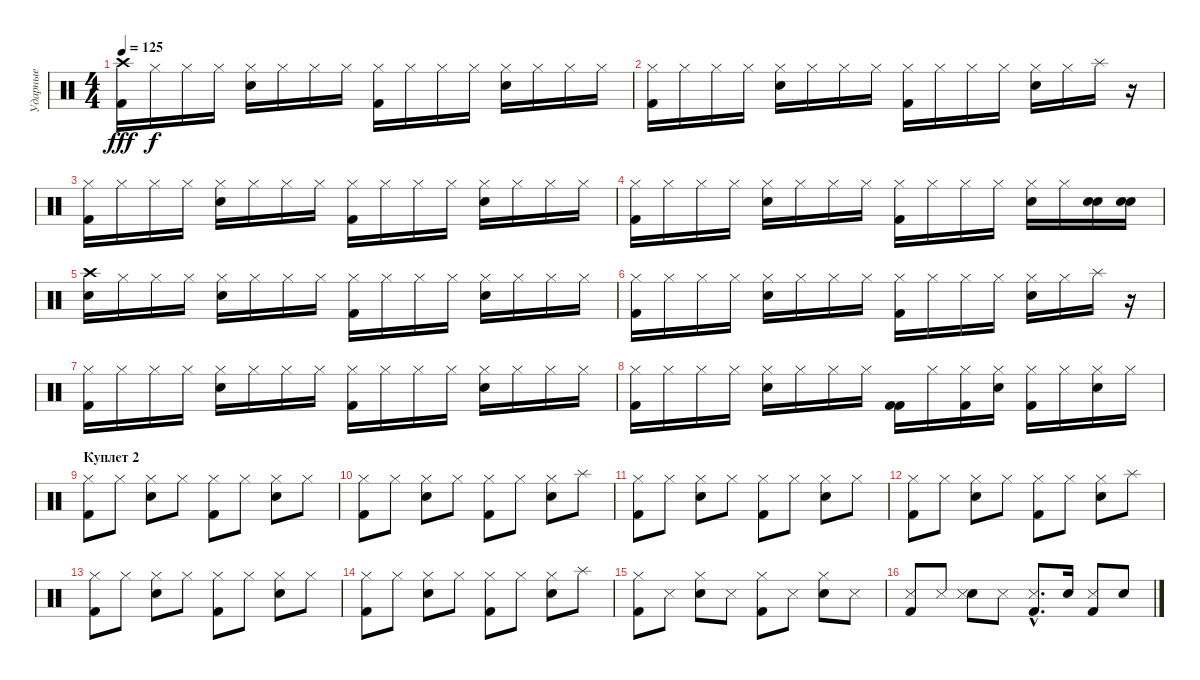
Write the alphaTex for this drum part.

\track ("Ударные" "Ударные") {instrument percussion}
\staff {score}
\articulation defaults
\ts (4 4)
\tempo 125
\clef neutral
\ks c
("Crash high (hit)" "Kick (hit) 2").16{dy fff balance 8} "Hi-Hat (closed)".16{dy f} "Hi-Hat (closed)".16 "Hi-Hat (closed)".16 ("Hi-Hat (closed)" "Snare (hit) 2").16 "Hi-Hat (closed)".16 "Hi-Hat (closed)".16 "Hi-Hat (closed)".16 ("Hi-Hat (closed)" "Kick (hit) 2").16 "Hi-Hat (closed)".16 "Hi-Hat (closed)".16 "Hi-Hat (closed)".16 ("Hi-Hat (closed)" "Snare (hit) 2").16 "Hi-Hat (closed)".16 "Hi-Hat (closed)".16 "Hi-Hat (closed)".16 |
("Hi-Hat (closed)" "Kick (hit) 2").16 "Hi-Hat (closed)".16 "Hi-Hat (closed)".16 "Hi-Hat (closed)".16 ("Hi-Hat (closed)" "Snare (hit) 2").16 "Hi-Hat (closed)".16 "Hi-Hat (closed)".16 "Hi-Hat (closed)".16 ("Hi-Hat (closed)" "Kick (hit) 2").16 "Hi-Hat (closed)".16 "Hi-Hat (closed)".16 "Hi-Hat (closed)".16 ("Hi-Hat (closed)" "Snare (hit) 2").16 "Hi-Hat (closed)".16 "Splash (hit)".16 r.16 |
("Hi-Hat (closed)" "Kick (hit) 2").16 "Hi-Hat (closed)".16 "Hi-Hat (closed)".16 "Hi-Hat (closed)".16 ("Hi-Hat (closed)" "Snare (hit) 2").16 "Hi-Hat (closed)".16 "Hi-Hat (closed)".16 "Hi-Hat (closed)".16 ("Hi-Hat (closed)" "Kick (hit) 2").16 "Hi-Hat (closed)".16 "Hi-Hat (closed)".16 "Hi-Hat (closed)".16 ("Hi-Hat (closed)" "Snare (hit) 2").16 "Hi-Hat (closed)".16 "Hi-Hat (closed)".16 "Hi-Hat (closed)".16 |
("Hi-Hat (closed)" "Kick (hit) 2").16 "Hi-Hat (closed)".16 "Hi-Hat (closed)".16 "Hi-Hat (closed)".16 ("Hi-Hat (closed)" "Snare (hit) 2").16 "Hi-Hat (closed)".16 "Hi-Hat (closed)".16 "Hi-Hat (closed)".16 ("Hi-Hat (closed)" "Kick (hit) 2").16 "Hi-Hat (closed)".16 "Hi-Hat (closed)".16 "Hi-Hat (closed)".16 ("Hi-Hat (closed)" "Snare (hit) 2").16 "Hi-Hat (closed)".16 ("Snare (hit) 2" "Electric Snare (hit)").16{balance 0} ("Snare (hit) 2" "Electric Snare (hit)").16 |
("Snare (hit) 2" "Crash high (hit)").16{balance 8} "Hi-Hat (closed)".16 "Hi-Hat (closed)".16 "Hi-Hat (closed)".16 ("Hi-Hat (closed)" "Snare (hit) 2").16 "Hi-Hat (closed)".16 "Hi-Hat (closed)".16 "Hi-Hat (closed)".16 ("Hi-Hat (closed)" "Kick (hit) 2").16 "Hi-Hat (closed)".16 "Hi-Hat (closed)".16 "Hi-Hat (closed)".16 ("Hi-Hat (closed)" "Snare (hit) 2").16 "Hi-Hat (closed)".16 "Hi-Hat (closed)".16 "Hi-Hat (closed)".16 |
("Hi-Hat (closed)" "Kick (hit) 2").16 "Hi-Hat (closed)".16 "Hi-Hat (closed)".16 "Hi-Hat (closed)".16 ("Hi-Hat (closed)" "Snare (hit) 2").16 "Hi-Hat (closed)".16 "Hi-Hat (closed)".16 "Hi-Hat (closed)".16 ("Hi-Hat (closed)" "Kick (hit) 2").16 "Hi-Hat (closed)".16 "Hi-Hat (closed)".16 "Hi-Hat (closed)".16 ("Hi-Hat (closed)" "Snare (hit) 2").16 "Hi-Hat (closed)".16 "Splash (hit)".16 r.16 |
("Hi-Hat (closed)" "Kick (hit) 2").16 "Hi-Hat (closed)".16 "Hi-Hat (closed)".16 "Hi-Hat (closed)".16 ("Hi-Hat (closed)" "Snare (hit) 2").16 "Hi-Hat (closed)".16 "Hi-Hat (closed)".16 "Hi-Hat (closed)".16 ("Hi-Hat (closed)" "Kick (hit) 2").16 "Hi-Hat (closed)".16 "Hi-Hat (closed)".16 "Hi-Hat (closed)".16 ("Hi-Hat (closed)" "Snare (hit) 2").16 "Hi-Hat (closed)".16 "Hi-Hat (closed)".16 "Hi-Hat (closed)".16 |
("Hi-Hat (closed)" "Kick (hit) 2").16 "Hi-Hat (closed)".16 "Hi-Hat (closed)".16 "Hi-Hat (closed)".16 ("Hi-Hat (closed)" "Snare (hit) 2").16 "Hi-Hat (closed)".16 "Hi-Hat (closed)".16 "Hi-Hat (closed)".16 ("Kick (hit) 2" "Kick (hit) 2").16 "Hi-Hat (closed)".16 ("Kick (hit) 2" "Hi-Hat (closed)").16 ("Electric Snare (hit)" "Hi-Hat (closed)").16 ("Kick (hit) 2" "Hi-Hat (closed)").16 "Hi-Hat (closed)".16 ("Electric Snare (hit)" "Hi-Hat (closed)").16 "Hi-Hat (closed)".16 |
\section ("" "Куплет 2")
("Kick (hit) 2" "Hi-Hat (closed)").8 "Hi-Hat (closed)".8 ("Snare (hit) 2" "Hi-Hat (closed)").8 "Hi-Hat (closed)".8 ("Kick (hit) 2" "Hi-Hat (closed)").8 "Hi-Hat (closed)".8 ("Snare (hit) 2" "Hi-Hat (closed)").8 "Hi-Hat (closed)".8 |
("Kick (hit) 2" "Hi-Hat (closed)").8 "Hi-Hat (closed)".8 ("Snare (hit) 2" "Hi-Hat (closed)").8 "Hi-Hat (closed)".8 ("Kick (hit) 2" "Hi-Hat (closed)").8 "Hi-Hat (closed)".8 ("Snare (hit) 2" "Hi-Hat (closed)").8 "Splash (hit)".8 |
("Kick (hit) 2" "Hi-Hat (closed)").8 "Hi-Hat (closed)".8 ("Snare (hit) 2" "Hi-Hat (closed)").8 "Hi-Hat (closed)".8 ("Kick (hit) 2" "Hi-Hat (closed)").8 "Hi-Hat (closed)".8 ("Snare (hit) 2" "Hi-Hat (closed)").8 "Hi-Hat (closed)".8 |
("Kick (hit) 2" "Hi-Hat (closed)").8 "Hi-Hat (closed)".8 ("Snare (hit) 2" "Hi-Hat (closed)").8 "Hi-Hat (closed)".8 ("Kick (hit) 2" "Hi-Hat (closed)").8 "Hi-Hat (closed)".8 ("Snare (hit) 2" "Hi-Hat (closed)").8 "Splash (hit)".8 |
("Kick (hit) 2" "Hi-Hat (closed)").8 "Hi-Hat (closed)".8 ("Snare (hit) 2" "Hi-Hat (closed)").8 "Hi-Hat (closed)".8 ("Kick (hit) 2" "Hi-Hat (closed)").8 "Hi-Hat (closed)".8 ("Snare (hit) 2" "Hi-Hat (closed)").8 "Hi-Hat (closed)".8 |
("Kick (hit) 2" "Hi-Hat (closed)").8 "Hi-Hat (closed)".8 ("Snare (hit) 2" "Hi-Hat (closed)").8 "Hi-Hat (closed)".8 ("Kick (hit) 2" "Hi-Hat (closed)").8 "Hi-Hat (closed)".8 ("Snare (hit) 2" "Hi-Hat (closed)").8 "Splash (hit)".8 |
("Kick (hit) 2" "Hi-Hat (closed)").8 "Snare (side stick) 3".8 ("Snare (hit) 2" "Hi-Hat (closed)").8 "Snare (side stick) 3".8 ("Kick (hit) 2" "Hi-Hat (closed)").8 "Snare (side stick) 3".8 ("Snare (hit) 2" "Hi-Hat (closed)").8 "Snare (side stick) 3".8 |
("Kick (hit) 2" "Snare (side stick) 3").8 "Snare (side stick) 3".8 ("Snare (hit) 2" "Snare (side stick) 3").8 "Snare (side stick) 3".8 ("Kick (hit) 2"{hac} "Snare (side stick) 3"{hac}).8{d} "Snare (hit) 2".16 ("Kick (hit) 2" "Snare (side stick) 3").8 "Snare (hit) 2".8
